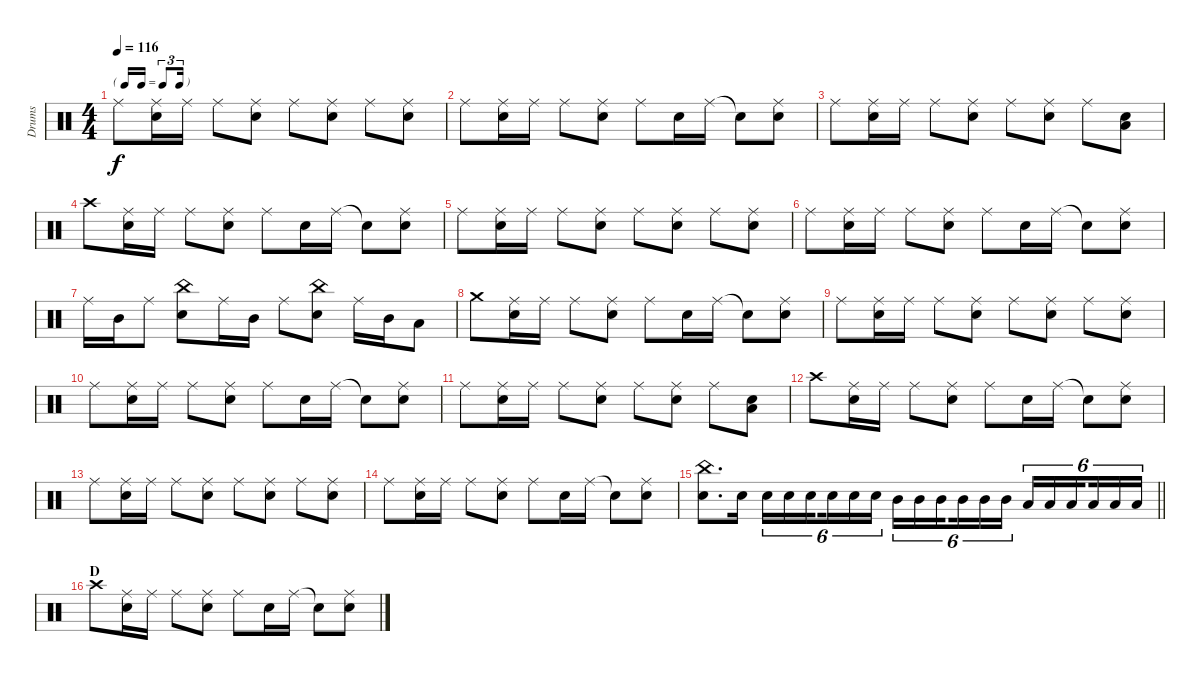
\track ("Drums" "Drums") {instrument percussion}
\staff {score}
\articulation defaults
\ts (4 4)
\tf triplet16th
\tempo 116
\clef neutral
\ks c "Ride (middle)".8{dy f}
("Ride (middle)" "Snare (hit) 2").16 "Ride (middle)".16 "Ride (middle)".8 ("Ride (middle)" "Snare (hit) 2").8 "Ride (middle)".8 ("Ride (middle)" "Snare (hit) 2").8 "Ride (middle)".8 ("Ride (middle)" "Snare (hit) 2").8 |
"Ride (middle)".8 ("Ride (middle)" "Snare (hit) 2").16 "Ride (middle)".16 "Ride (middle)".8 ("Ride (middle)" "Snare (hit) 2").8 "Ride (middle)".8 "Snare (hit) 2".16 "Ride (middle)".16 "Snare (hit)"{t}.8 ("Ride (middle)" "Snare (hit) 2").8 |
"Ride (middle)".8 ("Ride (middle)" "Snare (hit) 2").16 "Ride (middle)".16 "Ride (middle)".8 ("Ride (middle)" "Snare (hit) 2").8 "Ride (middle)".8 ("Ride (middle)" "Snare (hit) 2").8 "Ride (middle)".8 ("Low Tom (hit)" "Snare (hit) 2").8 |
"Crash high (hit)".8 ("Ride (middle)" "Snare (hit) 2").16 "Ride (middle)".16 "Ride (middle)".8 ("Ride (middle)" "Snare (hit) 2").8 "Ride (middle)".8 "Snare (hit) 2".16 "Ride (middle)".16 "Snare (hit)"{t}.8 ("Ride (middle)" "Snare (hit) 2").8 |
"Ride (middle)".8 ("Ride (middle)" "Snare (hit) 2").16 "Ride (middle)".16 "Ride (middle)".8 ("Ride (middle)" "Snare (hit) 2").8 "Ride (middle)".8 ("Ride (middle)" "Snare (hit) 2").8 "Ride (middle)".8 ("Ride (middle)" "Snare (hit) 2").8 |
"Ride (middle)".8 ("Ride (middle)" "Snare (hit) 2").16 "Ride (middle)".16 "Ride (middle)".8 ("Ride (middle)" "Snare (hit) 2").8 "Ride (middle)".8 "Snare (hit) 2".16 "Ride (middle)".16 "Snare (hit)"{t}.8 ("Ride (middle)" "Snare (hit) 2").8 |
"Ride (middle)".16 "Mid Tom (hit)".16 "Ride (middle)".8 ("China (hit)" "Snare (hit) 2").8 "Ride (middle)".16 "Mid Tom (hit)".16 "Ride (middle)".8 ("China (hit)" "Snare (hit) 2").8 "Ride (middle)".16 "Mid Tom (hit)".16 "Low Tom (hit)".8 |
"Crash medium (hit)".8 ("Ride (middle)" "Snare (hit) 2").16 "Ride (middle)".16 "Ride (middle)".8 ("Ride (middle)" "Snare (hit) 2").8 "Ride (middle)".8 "Snare (hit) 2".16 "Ride (middle)".16 "Snare (hit)"{t}.8 ("Ride (middle)" "Snare (hit) 2").8 |
"Ride (middle)".8 ("Ride (middle)" "Snare (hit) 2").16 "Ride (middle)".16 "Ride (middle)".8 ("Ride (middle)" "Snare (hit) 2").8 "Ride (middle)".8 ("Ride (middle)" "Snare (hit) 2").8 "Ride (middle)".8 ("Ride (middle)" "Snare (hit) 2").8 |
"Ride (middle)".8 ("Ride (middle)" "Snare (hit) 2").16 "Ride (middle)".16 "Ride (middle)".8 ("Ride (middle)" "Snare (hit) 2").8 "Ride (middle)".8 "Snare (hit) 2".16 "Ride (middle)".16 "Snare (hit)"{t}.8 ("Ride (middle)" "Snare (hit) 2").8 |
"Ride (middle)".8 ("Ride (middle)" "Snare (hit) 2").16 "Ride (middle)".16 "Ride (middle)".8 ("Ride (middle)" "Snare (hit) 2").8 "Ride (middle)".8 ("Ride (middle)" "Snare (hit) 2").8 "Ride (middle)".8 ("Low Tom (hit)" "Snare (hit) 2").8 |
"Crash high (hit)".8 ("Ride (middle)" "Snare (hit) 2").16 "Ride (middle)".16 "Ride (middle)".8 ("Ride (middle)" "Snare (hit) 2").8 "Ride (middle)".8 "Snare (hit) 2".16 "Ride (middle)".16 "Snare (hit)"{t}.8 ("Ride (middle)" "Snare (hit) 2").8 |
"Ride (middle)".8 ("Ride (middle)" "Snare (hit) 2").16 "Ride (middle)".16 "Ride (middle)".8 ("Ride (middle)" "Snare (hit) 2").8 "Ride (middle)".8 ("Ride (middle)" "Snare (hit) 2").8 "Ride (middle)".8 ("Ride (middle)" "Snare (hit) 2").8 |
"Ride (middle)".8 ("Ride (middle)" "Snare (hit) 2").16 "Ride (middle)".16 "Ride (middle)".8 ("Ride (middle)" "Snare (hit) 2").8 "Ride (middle)".8 "Snare (hit) 2".16 "Ride (middle)".16 "Snare (hit)"{t}.8 ("Ride (middle)" "Snare (hit) 2").8 |
\barLineRight lightlight
("China (hit)" "Snare (hit) 2").8{d} "Snare (hit) 2".16 "Snare (hit) 2".16{tu (6 4)} "Snare (hit) 2".16{tu (6 4)} "Snare (hit) 2".16{tu (6 4) beam splitsecondary} "Snare (hit) 2".16{tu (6 4)} "Snare (hit) 2".16{tu (6 4)} "Snare (hit) 2".16{tu (6 4)} "Mid Tom (hit)".16{tu (6 4)} "Mid Tom (hit)".16{tu (6 4)} "Mid Tom (hit)".16{tu (6 4) beam splitsecondary} "Mid Tom (hit)".16{tu (6 4)} "Mid Tom (hit)".16{tu (6 4)} "Mid Tom (hit)".16{tu (6 4)} "Low Tom (hit)".16{tu (6 4)} "Low Tom (hit)".16{tu (6 4)} "Low Tom (hit)".16{tu (6 4) beam splitsecondary} "Low Tom (hit)".16{tu (6 4)} "Low Tom (hit)".16{tu (6 4)} "Low Tom (hit)".16{tu (6 4)} |
\section ("" "D")
"Crash high (hit)".8 ("Ride (middle)" "Snare (hit) 2").16 "Ride (middle)".16 "Ride (middle)".8 ("Ride (middle)" "Snare (hit) 2").8 "Ride (middle)".8 "Snare (hit) 2".16 "Ride (middle)".16 "Snare (hit)"{t}.8 ("Ride (middle)" "Snare (hit) 2").8
